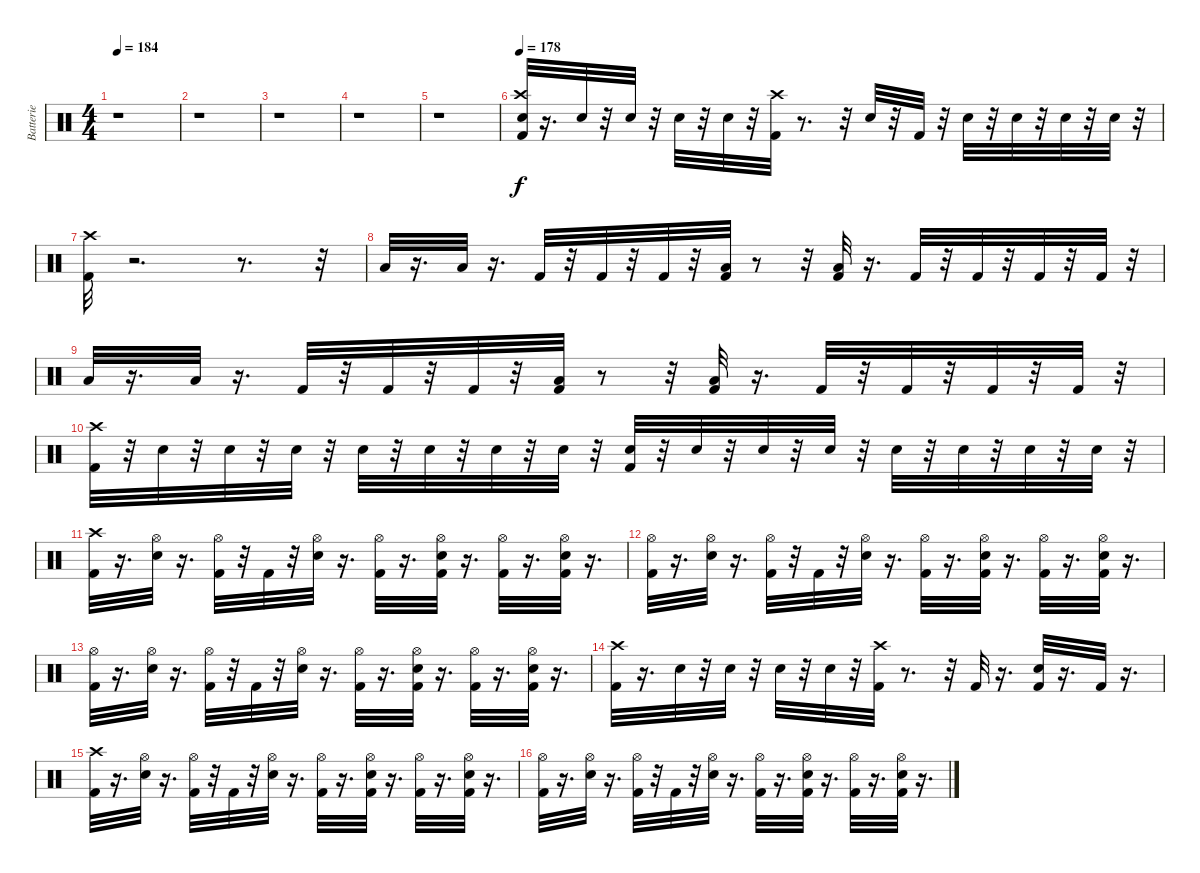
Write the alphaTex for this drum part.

\track ("Batterie" "Batterie") {instrument percussion}
\staff {score}
\articulation defaults
\ts (4 4)
\tempo 184
\clef neutral
\ks c
r.1{dy f} |
r.1 |
r.1 |
r.1 |
r.1 |
\tempo 178
("Electric Snare (hit)" "Crash high (hit)" "Kick (hit) 2").32 r.16{d} "Electric Snare (hit)".32 r.32 "Electric Snare (hit)".32 r.32 "Electric Snare (hit)".32 r.32 "Electric Snare (hit)".32 r.32 ("Crash high (hit)" "Kick (hit) 2").32 r.8{d} r.32 "Electric Snare (hit)".32 r.32 "Kick (hit) 2".32 r.32 "Electric Snare (hit)".32 r.32 "Electric Snare (hit)".32 r.32 "Electric Snare (hit)".32 r.32 "Electric Snare (hit)".32 r.32 |
("Kick (hit) 2" "Crash high (hit)").32 r.2{d} r.8{d} r.32 |
"Low Tom (hit)".32 r.16{d} "Low Tom (hit)".32 r.16{d} "Kick (hit) 2".32 r.32 "Kick (hit) 2".32 r.32 "Kick (hit) 2".32 r.32 ("Kick (hit) 2" "Low Tom (hit)").32 r.8 r.32 ("Kick (hit) 2" "Low Tom (hit)").32 r.16{d} "Kick (hit) 2".32 r.32 "Kick (hit) 2".32 r.32 "Kick (hit) 2".32 r.32 "Kick (hit) 2".32 r.32 |
"Low Tom (hit)".32 r.16{d} "Low Tom (hit)".32 r.16{d} "Kick (hit) 2".32 r.32 "Kick (hit) 2".32 r.32 "Kick (hit) 2".32 r.32 ("Kick (hit) 2" "Low Tom (hit)").32 r.8 r.32 ("Kick (hit) 2" "Low Tom (hit)").32 r.16{d} "Kick (hit) 2".32 r.32 "Kick (hit) 2".32 r.32 "Kick (hit) 2".32 r.32 "Kick (hit) 2".32 r.32 |
("Crash high (hit)" "Kick (hit) 2").32 r.32 "Electric Snare (hit)".32 r.32 "Electric Snare (hit)".32 r.32 "Electric Snare (hit)".32 r.32 "Electric Snare (hit)".32 r.32 "Electric Snare (hit)".32 r.32 "Electric Snare (hit)".32 r.32 "Electric Snare (hit)".32 r.32 ("Electric Snare (hit)" "Kick (hit) 2").32 r.32 "Electric Snare (hit)".32 r.32 "Electric Snare (hit)".32 r.32 "Electric Snare (hit)".32 r.32 "Electric Snare (hit)".32 r.32 "Electric Snare (hit)".32 r.32 "Electric Snare (hit)".32 r.32 "Electric Snare (hit)".32 r.32 |
("Kick (hit) 2" "Crash high (hit)").32 r.16{d} ("Electric Snare (hit)" "Hi-Hat (open)").32 r.16{d} ("Kick (hit) 2" "Hi-Hat (open)").32 r.32 "Kick (hit) 2".32 r.32 ("Electric Snare (hit)" "Hi-Hat (open)").32 r.16{d} ("Kick (hit) 2" "Hi-Hat (open)").32 r.16{d} ("Electric Snare (hit)" "Kick (hit) 2" "Hi-Hat (open)").32 r.16{d} ("Kick (hit) 2" "Hi-Hat (open)").32 r.16{d} ("Electric Snare (hit)" "Kick (hit) 2" "Hi-Hat (open)").32 r.16{d} |
("Kick (hit) 2" "Hi-Hat (open)").32 r.16{d} ("Electric Snare (hit)" "Hi-Hat (open)").32 r.16{d} ("Kick (hit) 2" "Hi-Hat (open)").32 r.32 "Kick (hit) 2".32 r.32 ("Electric Snare (hit)" "Hi-Hat (open)").32 r.16{d} ("Kick (hit) 2" "Hi-Hat (open)").32 r.16{d} ("Kick (hit) 2" "Electric Snare (hit)" "Hi-Hat (open)").32 r.16{d} ("Kick (hit) 2" "Hi-Hat (open)").32 r.16{d} ("Kick (hit) 2" "Electric Snare (hit)" "Hi-Hat (open)").32 r.16{d} |
("Kick (hit) 2" "Hi-Hat (open)").32 r.16{d} ("Electric Snare (hit)" "Hi-Hat (open)").32 r.16{d} ("Kick (hit) 2" "Hi-Hat (open)").32 r.32 "Kick (hit) 2".32 r.32 ("Electric Snare (hit)" "Hi-Hat (open)").32 r.16{d} ("Kick (hit) 2" "Hi-Hat (open)").32 r.16{d} ("Kick (hit) 2" "Electric Snare (hit)" "Hi-Hat (open)").32 r.16{d} ("Kick (hit) 2" "Hi-Hat (open)").32 r.16{d} ("Kick (hit) 2" "Electric Snare (hit)" "Hi-Hat (open)").32 r.16{d} |
("Kick (hit) 2" "Crash high (hit)").32 r.16{d} "Electric Snare (hit)".32 r.32 "Electric Snare (hit)".32 r.32 "Electric Snare (hit)".32 r.32 "Electric Snare (hit)".32 r.32 ("Crash high (hit)" "Kick (hit) 2").32 r.8{d} r.32 "Kick (hit) 2".32 r.16{d} ("Electric Snare (hit)" "Kick (hit) 2").32 r.16{d} "Kick (hit) 2".32 r.16{d} |
("Kick (hit) 2" "Crash high (hit)").32 r.16{d} ("Electric Snare (hit)" "Hi-Hat (open)").32 r.16{d} ("Kick (hit) 2" "Hi-Hat (open)").32 r.32 "Kick (hit) 2".32 r.32 ("Electric Snare (hit)" "Hi-Hat (open)").32 r.16{d} ("Kick (hit) 2" "Hi-Hat (open)").32 r.16{d} ("Electric Snare (hit)" "Kick (hit) 2" "Hi-Hat (open)").32 r.16{d} ("Kick (hit) 2" "Hi-Hat (open)").32 r.16{d} ("Electric Snare (hit)" "Kick (hit) 2" "Hi-Hat (open)").32 r.16{d} |
("Kick (hit) 2" "Hi-Hat (open)").32 r.16{d} ("Electric Snare (hit)" "Hi-Hat (open)").32 r.16{d} ("Kick (hit) 2" "Hi-Hat (open)").32 r.32 "Kick (hit) 2".32 r.32 ("Electric Snare (hit)" "Hi-Hat (open)").32 r.16{d} ("Kick (hit) 2" "Hi-Hat (open)").32 r.16{d} ("Kick (hit) 2" "Electric Snare (hit)" "Hi-Hat (open)").32 r.16{d} ("Kick (hit) 2" "Hi-Hat (open)").32 r.16{d} ("Kick (hit) 2" "Electric Snare (hit)" "Hi-Hat (open)").32 r.16{d}
